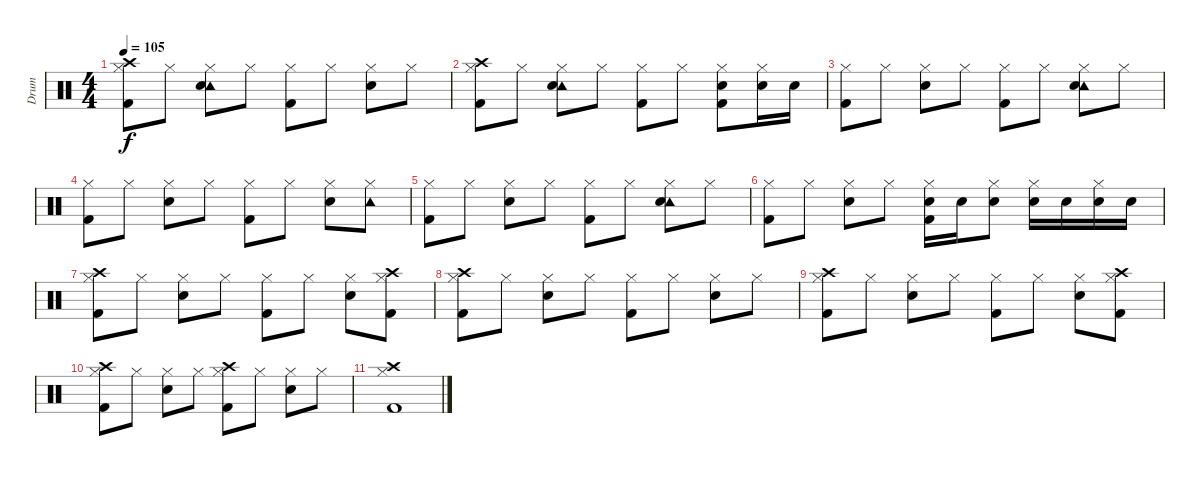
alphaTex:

\track ("Drum" "Drum") {instrument percussion}
\staff {score}
\articulation defaults
\ts (4 4)
\tempo 105
\clef neutral
\ks c
("Crash high (hit)" "Hi-Hat (closed)" "Kick (hit) 2").8{dy f} "Hi-Hat (closed)".8 ("Tambourine (hit)" "Electric Snare (hit)" "Hi-Hat (closed)").8 "Hi-Hat (closed)".8 ("Hi-Hat (closed)" "Kick (hit) 2").8 "Hi-Hat (closed)".8 ("Electric Snare (hit)" "Hi-Hat (closed)").8 "Hi-Hat (closed)".8 |
("Crash high (hit)" "Hi-Hat (closed)" "Kick (hit) 2").8 "Hi-Hat (closed)".8 ("Tambourine (hit)" "Electric Snare (hit)" "Hi-Hat (closed)").8 "Hi-Hat (closed)".8 ("Hi-Hat (closed)" "Kick (hit) 2").8 "Hi-Hat (closed)".8 ("Electric Snare (hit)" "Hi-Hat (closed)" "Kick (hit) 2").8 ("Electric Snare (hit)" "Hi-Hat (closed)").16 "Electric Snare (hit)".16 |
("Hi-Hat (closed)" "Kick (hit) 2").8 "Hi-Hat (closed)".8 ("Electric Snare (hit)" "Hi-Hat (closed)").8 "Hi-Hat (closed)".8 ("Hi-Hat (closed)" "Kick (hit) 2").8 "Hi-Hat (closed)".8 ("Tambourine (hit)" "Electric Snare (hit)" "Hi-Hat (closed)").8 "Hi-Hat (closed)".8 |
("Hi-Hat (closed)" "Kick (hit) 2").8 "Hi-Hat (closed)".8 ("Electric Snare (hit)" "Hi-Hat (closed)").8 "Hi-Hat (closed)".8 ("Hi-Hat (closed)" "Kick (hit) 2").8 "Hi-Hat (closed)".8 ("Electric Snare (hit)" "Hi-Hat (closed)").8 ("Tambourine (hit)" "Hi-Hat (closed)").8 |
("Hi-Hat (closed)" "Kick (hit) 2").8 "Hi-Hat (closed)".8 ("Electric Snare (hit)" "Hi-Hat (closed)").8 "Hi-Hat (closed)".8 ("Hi-Hat (closed)" "Kick (hit) 2").8 "Hi-Hat (closed)".8 ("Tambourine (hit)" "Electric Snare (hit)" "Hi-Hat (closed)").8 "Hi-Hat (closed)".8 |
("Hi-Hat (closed)" "Kick (hit) 2").8 "Hi-Hat (closed)".8 ("Electric Snare (hit)" "Hi-Hat (closed)").8 "Hi-Hat (closed)".8 ("Electric Snare (hit)" "Hi-Hat (closed)" "Kick (hit) 2").16 "Electric Snare (hit)".16 ("Electric Snare (hit)" "Hi-Hat (closed)").8 ("Electric Snare (hit)" "Hi-Hat (closed)").16 "Electric Snare (hit)".16 ("Electric Snare (hit)" "Hi-Hat (closed)").16 "Electric Snare (hit)".16 |
("Crash high (hit)" "Hi-Hat (closed)" "Kick (hit) 2").8 "Hi-Hat (closed)".8 ("Electric Snare (hit)" "Hi-Hat (closed)").8 "Hi-Hat (closed)".8 ("Hi-Hat (closed)" "Kick (hit) 2").8 "Hi-Hat (closed)".8 ("Electric Snare (hit)" "Hi-Hat (closed)").8 ("Crash high (hit)" "Hi-Hat (closed)" "Kick (hit) 2").8 |
("Crash high (hit)" "Hi-Hat (closed)" "Kick (hit) 2").8 "Hi-Hat (closed)".8 ("Electric Snare (hit)" "Hi-Hat (closed)").8 "Hi-Hat (closed)".8 ("Hi-Hat (closed)" "Kick (hit) 2").8 "Hi-Hat (closed)".8 ("Electric Snare (hit)" "Hi-Hat (closed)").8 "Hi-Hat (closed)".8 |
("Crash high (hit)" "Hi-Hat (closed)" "Kick (hit) 2").8 "Hi-Hat (closed)".8 ("Electric Snare (hit)" "Hi-Hat (closed)").8 "Hi-Hat (closed)".8 ("Hi-Hat (closed)" "Kick (hit) 2").8 "Hi-Hat (closed)".8 ("Electric Snare (hit)" "Hi-Hat (closed)").8 ("Crash high (hit)" "Hi-Hat (closed)" "Kick (hit) 2").8 |
("Crash high (hit)" "Hi-Hat (closed)" "Kick (hit) 2").8 "Hi-Hat (closed)".8 ("Electric Snare (hit)" "Hi-Hat (closed)").8 "Hi-Hat (closed)".8 ("Crash high (hit)" "Hi-Hat (closed)" "Kick (hit) 2").8 "Hi-Hat (closed)".8 ("Electric Snare (hit)" "Hi-Hat (closed)").8 "Hi-Hat (closed)".8 |
("Crash high (hit)" "Hi-Hat (closed)" "Kick (hit) 2").1
